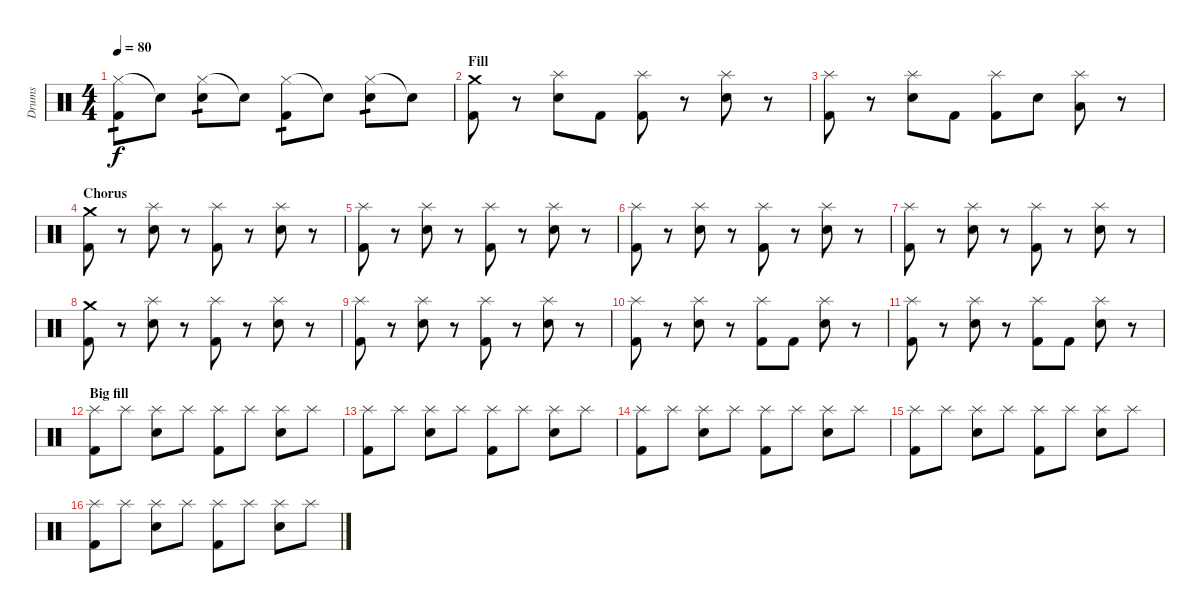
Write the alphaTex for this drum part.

\track ("Drums" "Drums") {instrument percussion}
\staff {score}
\articulation defaults
\ts (4 4)
\tempo 80
\clef neutral
\ks c
("Hi-Hat (closed)" "Kick (hit) 2").8{tp 1 dy f} "Snare (hit)"{t}.8 ("Hi-Hat (closed)" "Electric Snare (hit)").8{tp 1} "Snare (hit)"{t}.8 ("Hi-Hat (closed)" "Kick (hit) 2").8{tp 1} "Snare (hit)"{t}.8 ("Hi-Hat (closed)" "Electric Snare (hit)").8{tp 1} "Snare (hit)"{t}.8 |
\section ("" "Fill")
("Crash medium (hit)" "Kick (hit) 2").8 r.8 ("Splash (hit)" "Electric Snare (hit)").8 "Kick (hit) 2".8 ("Splash (hit)" "Kick (hit) 2").8 r.8 ("Splash (hit)" "Electric Snare (hit)").8 r.8 |
("Splash (hit)" "Kick (hit) 2").8 r.8 ("Splash (hit)" "Electric Snare (hit)").8 "Kick (hit) 2".8 ("Splash (hit)" "Kick (hit) 2").8 "Electric Snare (hit)".8 ("Splash (hit)" "Low Floor Tom (hit)").8 r.8 |
\section ("" "Chorus")
("Crash medium (hit)" "Kick (hit) 2").8 r.8 ("Splash (hit)" "Electric Snare (hit)").8 r.8 ("Splash (hit)" "Kick (hit) 2").8 r.8 ("Splash (hit)" "Electric Snare (hit)").8 r.8 |
("Splash (hit)" "Kick (hit) 2").8 r.8 ("Splash (hit)" "Electric Snare (hit)").8 r.8 ("Splash (hit)" "Kick (hit) 2").8 r.8 ("Splash (hit)" "Electric Snare (hit)").8 r.8 |
("Splash (hit)" "Kick (hit) 2").8 r.8 ("Splash (hit)" "Electric Snare (hit)").8 r.8 ("Splash (hit)" "Kick (hit) 2").8 r.8 ("Splash (hit)" "Electric Snare (hit)").8 r.8 |
("Splash (hit)" "Kick (hit) 2").8 r.8 ("Splash (hit)" "Electric Snare (hit)").8 r.8 ("Splash (hit)" "Kick (hit) 2").8 r.8 ("Splash (hit)" "Electric Snare (hit)").8 r.8 |
("Crash medium (hit)" "Kick (hit) 2").8 r.8 ("Splash (hit)" "Electric Snare (hit)").8 r.8 ("Splash (hit)" "Kick (hit) 2").8 r.8 ("Splash (hit)" "Electric Snare (hit)").8 r.8 |
("Splash (hit)" "Kick (hit) 2").8 r.8 ("Splash (hit)" "Electric Snare (hit)").8 r.8 ("Splash (hit)" "Kick (hit) 2").8 r.8 ("Splash (hit)" "Electric Snare (hit)").8 r.8 |
("Splash (hit)" "Kick (hit) 2").8 r.8 ("Splash (hit)" "Electric Snare (hit)").8 r.8 ("Splash (hit)" "Kick (hit) 2").8 "Kick (hit) 2".8 ("Splash (hit)" "Electric Snare (hit)").8 r.8 |
("Splash (hit)" "Kick (hit) 2").8 r.8 ("Splash (hit)" "Electric Snare (hit)").8 r.8 ("Splash (hit)" "Kick (hit) 2").8 "Kick (hit) 2".8 ("Splash (hit)" "Electric Snare (hit)").8 r.8 |
\section ("" "Big fill")
("Splash (hit)" "Kick (hit) 2").8 "Splash (hit)".8 ("Splash (hit)" "Electric Snare (hit)").8 "Splash (hit)".8 ("Splash (hit)" "Kick (hit) 2").8 "Splash (hit)".8 ("Splash (hit)" "Electric Snare (hit)").8 "Splash (hit)".8 |
("Splash (hit)" "Kick (hit) 2").8 "Splash (hit)".8 ("Splash (hit)" "Electric Snare (hit)").8 "Splash (hit)".8 ("Splash (hit)" "Kick (hit) 2").8 "Splash (hit)".8 ("Splash (hit)" "Electric Snare (hit)").8 "Splash (hit)".8 |
("Splash (hit)" "Kick (hit) 2").8 "Splash (hit)".8 ("Splash (hit)" "Electric Snare (hit)").8 "Splash (hit)".8 ("Splash (hit)" "Kick (hit) 2").8 "Splash (hit)".8 ("Splash (hit)" "Electric Snare (hit)").8 "Splash (hit)".8 |
("Splash (hit)" "Kick (hit) 2").8 "Splash (hit)".8 ("Splash (hit)" "Electric Snare (hit)").8 "Splash (hit)".8 ("Splash (hit)" "Kick (hit) 2").8 "Splash (hit)".8 ("Splash (hit)" "Electric Snare (hit)").8 "Splash (hit)".8 |
("Splash (hit)" "Kick (hit) 2").8 "Splash (hit)".8 ("Splash (hit)" "Electric Snare (hit)").8 "Splash (hit)".8 ("Splash (hit)" "Kick (hit) 2").8 "Splash (hit)".8 ("Splash (hit)" "Electric Snare (hit)").8 "Splash (hit)".8
